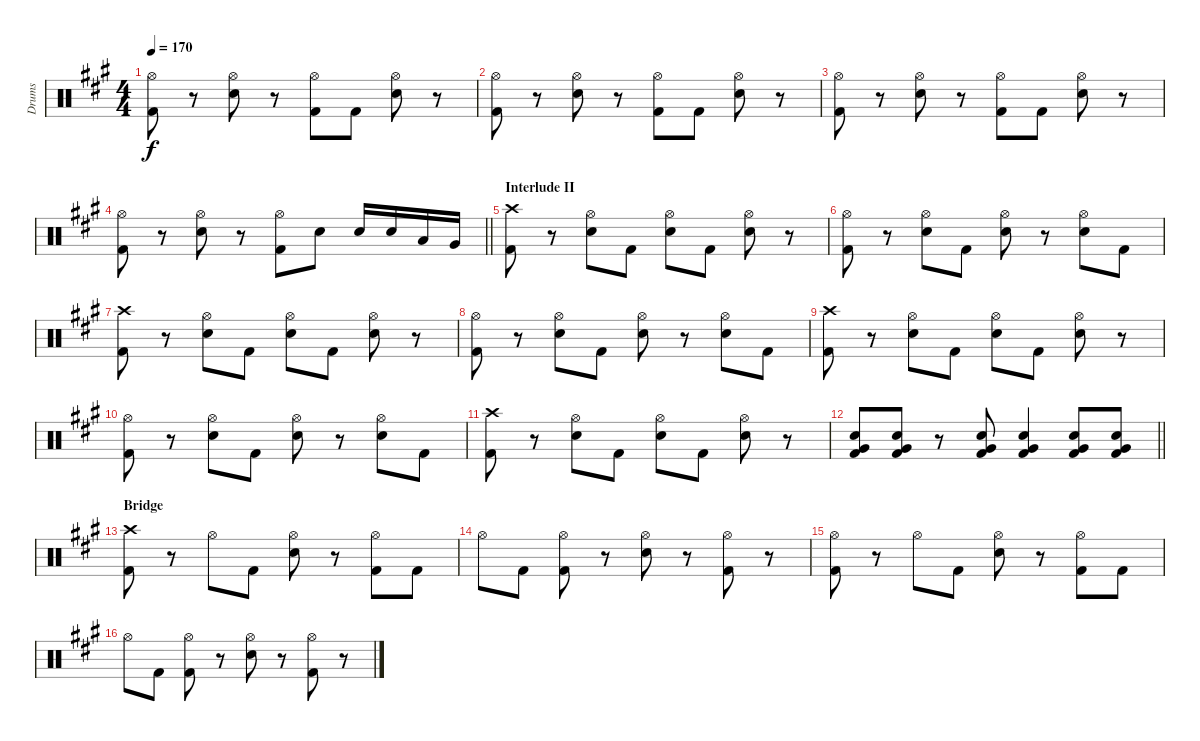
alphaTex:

\track ("Drums" "Drums") {instrument percussion}
\staff {score}
\articulation defaults
\ts (4 4)
\tempo 170
\clef neutral
\ks a
("Hi-Hat (open)" "Kick (hit) 2").8{dy f} r.8 ("Hi-Hat (open)" "Snare (hit) 2").8 r.8 ("Hi-Hat (open)" "Kick (hit) 2").8 "Kick (hit) 2".8 ("Hi-Hat (open)" "Snare (hit) 2").8 r.8 |
("Hi-Hat (open)" "Kick (hit) 2").8 r.8 ("Hi-Hat (open)" "Snare (hit) 2").8 r.8 ("Hi-Hat (open)" "Kick (hit) 2").8 "Kick (hit) 2".8 ("Hi-Hat (open)" "Snare (hit) 2").8 r.8 |
("Hi-Hat (open)" "Kick (hit) 2").8 r.8 ("Hi-Hat (open)" "Snare (hit) 2").8 r.8 ("Hi-Hat (open)" "Kick (hit) 2").8 "Kick (hit) 2".8 ("Hi-Hat (open)" "Snare (hit) 2").8 r.8 |
\barLineRight lightlight
("Hi-Hat (open)" "Kick (hit) 2").8 r.8 ("Hi-Hat (open)" "Snare (hit) 2").8 r.8 ("Hi-Hat (open)" "Kick (hit) 2").8 "Snare (hit) 2".8 "Snare (hit) 2".16 "Snare (hit) 2".16 "Low Tom (hit)".16 "Very Low Tom (hit)".16 |
\section ("" "Interlude II")
("Crash high (hit)" "Kick (hit) 2").8 r.8 ("Hi-Hat (open)" "Snare (hit) 2").8 "Kick (hit) 2".8 ("Hi-Hat (open)" "Snare (hit) 2").8 "Kick (hit) 2".8 ("Hi-Hat (open)" "Snare (hit) 2").8 r.8 |
("Hi-Hat (open)" "Kick (hit) 2").8 r.8 ("Hi-Hat (open)" "Snare (hit) 2").8 "Kick (hit) 2".8 ("Hi-Hat (open)" "Snare (hit) 2").8 r.8 ("Hi-Hat (open)" "Snare (hit) 2").8 "Kick (hit) 2".8 |
("Crash high (hit)" "Kick (hit) 2").8 r.8 ("Hi-Hat (open)" "Snare (hit) 2").8 "Kick (hit) 2".8 ("Hi-Hat (open)" "Snare (hit) 2").8 "Kick (hit) 2".8 ("Hi-Hat (open)" "Snare (hit) 2").8 r.8 |
("Hi-Hat (open)" "Kick (hit) 2").8 r.8 ("Hi-Hat (open)" "Snare (hit) 2").8 "Kick (hit) 2".8 ("Hi-Hat (open)" "Snare (hit) 2").8 r.8 ("Hi-Hat (open)" "Snare (hit) 2").8 "Kick (hit) 2".8 |
("Crash high (hit)" "Kick (hit) 2").8 r.8 ("Hi-Hat (open)" "Snare (hit) 2").8 "Kick (hit) 2".8 ("Hi-Hat (open)" "Snare (hit) 2").8 "Kick (hit) 2".8 ("Hi-Hat (open)" "Snare (hit) 2").8 r.8 |
("Hi-Hat (open)" "Kick (hit) 2").8 r.8 ("Hi-Hat (open)" "Snare (hit) 2").8 "Kick (hit) 2".8 ("Hi-Hat (open)" "Snare (hit) 2").8 r.8 ("Hi-Hat (open)" "Snare (hit) 2").8 "Kick (hit) 2".8 |
("Crash high (hit)" "Kick (hit) 2").8 r.8 ("Hi-Hat (open)" "Snare (hit) 2").8 "Kick (hit) 2".8 ("Hi-Hat (open)" "Snare (hit) 2").8 "Kick (hit) 2".8 ("Hi-Hat (open)" "Snare (hit) 2").8 r.8 |
\barLineRight lightlight
("Snare (hit) 2" "Very Low Tom (hit)" "Kick (hit) 2").8 ("Snare (hit) 2" "Very Low Tom (hit)" "Kick (hit) 2").8 r.8 ("Snare (hit) 2" "Very Low Tom (hit)" "Kick (hit) 2").8 ("Snare (hit) 2" "Very Low Tom (hit)" "Kick (hit) 2").4 ("Snare (hit) 2" "Very Low Tom (hit)" "Kick (hit) 2").8 ("Snare (hit) 2" "Very Low Tom (hit)" "Kick (hit) 2").8 |
\section ("" "Bridge")
("Crash high (hit)" "Kick (hit) 2").8 r.8 "Hi-Hat (open)".8 "Kick (hit) 2".8 ("Hi-Hat (open)" "Snare (hit) 2").8 r.8 ("Hi-Hat (open)" "Kick (hit) 2").8 "Kick (hit) 2".8 |
"Hi-Hat (open)".8 "Kick (hit) 2".8 ("Hi-Hat (open)" "Kick (hit) 2").8 r.8 ("Hi-Hat (open)" "Snare (hit) 2").8 r.8 ("Hi-Hat (open)" "Kick (hit) 2").8 r.8 |
("Hi-Hat (open)" "Kick (hit) 2").8 r.8 "Hi-Hat (open)".8 "Kick (hit) 2".8 ("Hi-Hat (open)" "Snare (hit) 2").8 r.8 ("Hi-Hat (open)" "Kick (hit) 2").8 "Kick (hit) 2".8 |
"Hi-Hat (open)".8 "Kick (hit) 2".8 ("Hi-Hat (open)" "Kick (hit) 2").8 r.8 ("Hi-Hat (open)" "Snare (hit) 2").8 r.8 ("Hi-Hat (open)" "Kick (hit) 2").8 r.8
